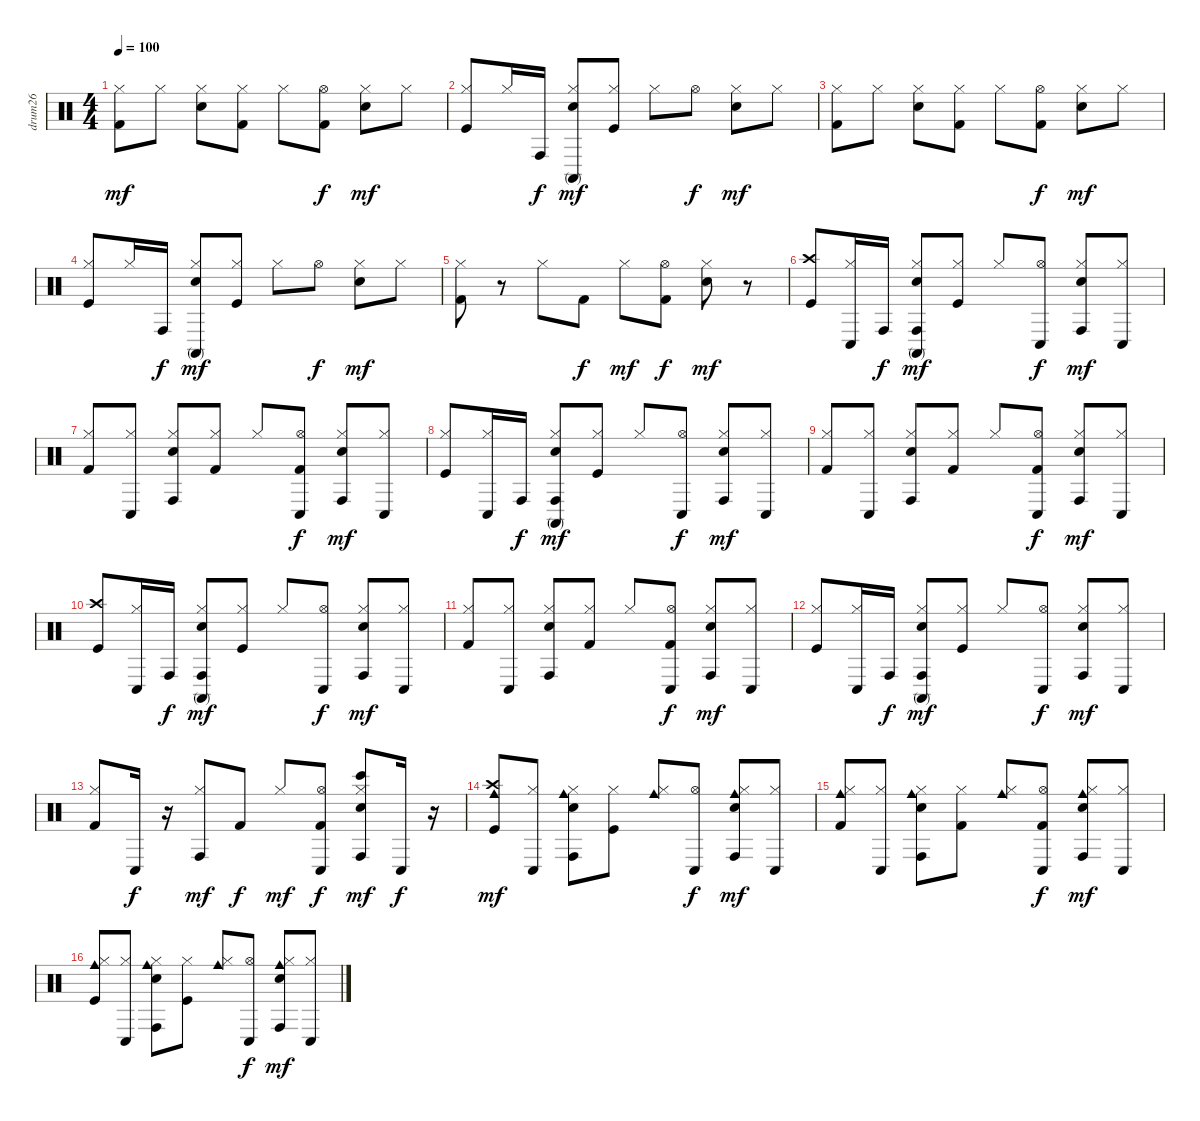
\track ("drum26" "drum26") {instrument percussion}
\staff {score}
\articulation defaults
\ts (4 4)
\tempo 100
\clef neutral
\ks c
("Kick (hit) 2" "Hi-Hat (closed)").8{dy mf} "Hi-Hat (closed)".8 ("Electric Snare (hit)" "Hi-Hat (closed)").8 ("Kick (hit) 2" "Hi-Hat (closed)").8 "Hi-Hat (closed)".8 ("Kick (hit) 2" "Hi-Hat (open)").8{dy f} ("Electric Snare (hit)" "Hi-Hat (closed)").8{dy mf} "Hi-Hat (closed)".8 |
("Kick (hit)" "Hi-Hat (closed)").8 "Hi-Hat (closed)".16 "Conga high (hit)".16{dy f} ("Electric Snare (hit)" "Conga high (mute)" "Hi-Hat (closed)").8{dy mf} ("Kick (hit)" "Hi-Hat (closed)").8 "Hi-Hat (closed)".8 "Hi-Hat (open)".8{dy f} ("Electric Snare (hit)" "Hi-Hat (closed)").8{dy mf} "Hi-Hat (closed)".8 |
("Kick (hit) 2" "Hi-Hat (closed)").8 "Hi-Hat (closed)".8 ("Electric Snare (hit)" "Hi-Hat (closed)").8 ("Hi-Hat (closed)" "Kick (hit) 2").8 "Hi-Hat (closed)".8 ("Kick (hit) 2" "Hi-Hat (open)").8{dy f} ("Hi-Hat (closed)" "Electric Snare (hit)").8{dy mf} "Hi-Hat (closed)".8 |
("Hi-Hat (closed)" "Kick (hit)").8 "Hi-Hat (closed)".16 "Conga high (hit)".16{dy f} ("Electric Snare (hit)" "Hi-Hat (closed)" "Conga high (mute)").8{dy mf} ("Hi-Hat (closed)" "Kick (hit)").8 "Hi-Hat (closed)".8 "Hi-Hat (open)".8{dy f} ("Hi-Hat (closed)" "Electric Snare (hit)").8{dy mf} "Hi-Hat (closed)".8 |
("Kick (hit) 2" "Hi-Hat (closed)").8 r.8 "Hi-Hat (closed)".8 "Kick (hit) 2".8{dy f} "Hi-Hat (closed)".8{dy mf} ("Kick (hit) 2" "Hi-Hat (open)").8{dy f} ("Electric Snare (hit)" "Hi-Hat (closed)").8{dy mf} r.8 |
("Kick (hit)" "Crash high (hit)").8 ("Hi-Hat (closed)" "Conga low (hit)").16 "Conga high (hit)".16{dy f} ("Conga high (hit)" "Conga high (mute)" "Electric Snare (hit)" "Hi-Hat (closed)").8{dy mf} ("Hi-Hat (closed)" "Kick (hit)").8 "Hi-Hat (closed)".8 ("Conga low (hit)" "Hi-Hat (open)").8{dy f} ("Hi-Hat (closed)" "Conga high (hit)" "Electric Snare (hit)").8{dy mf} ("Hi-Hat (closed)" "Conga low (hit)").8 |
("Kick (hit) 2" "Hi-Hat (closed)").8 ("Hi-Hat (closed)" "Conga low (hit)").8 ("Electric Snare (hit)" "Hi-Hat (closed)" "Conga high (hit)").8 ("Kick (hit) 2" "Hi-Hat (closed)").8 "Hi-Hat (closed)".8 ("Kick (hit) 2" "Hi-Hat (open)" "Conga low (hit)").8{dy f} ("Electric Snare (hit)" "Conga high (hit)" "Hi-Hat (closed)").8{dy mf} ("Conga low (hit)" "Hi-Hat (closed)").8 |
("Hi-Hat (closed)" "Kick (hit)").8 ("Hi-Hat (closed)" "Conga low (hit)").16 "Conga high (hit)".16{dy f} ("Conga high (hit)" "Electric Snare (hit)" "Hi-Hat (closed)" "Conga high (mute)").8{dy mf} ("Hi-Hat (closed)" "Kick (hit)").8 "Hi-Hat (closed)".8 ("Hi-Hat (open)" "Conga low (hit)").8{dy f} ("Conga high (hit)" "Electric Snare (hit)" "Hi-Hat (closed)").8{dy mf} ("Hi-Hat (closed)" "Conga low (hit)").8 |
("Hi-Hat (closed)" "Kick (hit) 2").8 ("Hi-Hat (closed)" "Conga low (hit)").8 ("Hi-Hat (closed)" "Conga high (hit)" "Electric Snare (hit)").8 ("Hi-Hat (closed)" "Kick (hit) 2").8 "Hi-Hat (closed)".8 ("Kick (hit) 2" "Hi-Hat (open)" "Conga low (hit)").8{dy f} ("Hi-Hat (closed)" "Electric Snare (hit)" "Conga high (hit)").8{dy mf} ("Conga low (hit)" "Hi-Hat (closed)").8 |
("Kick (hit)" "Crash high (hit)").8 ("Hi-Hat (closed)" "Conga low (hit)").16 "Conga high (hit)".16{dy f} ("Conga high (hit)" "Electric Snare (hit)" "Conga high (mute)" "Hi-Hat (closed)").8{dy mf} ("Kick (hit)" "Hi-Hat (closed)").8 "Hi-Hat (closed)".8 ("Hi-Hat (open)" "Conga low (hit)").8{dy f} ("Electric Snare (hit)" "Hi-Hat (closed)" "Conga high (hit)").8{dy mf} ("Hi-Hat (closed)" "Conga low (hit)").8 |
("Kick (hit) 2" "Hi-Hat (closed)").8 ("Hi-Hat (closed)" "Conga low (hit)").8 ("Electric Snare (hit)" "Hi-Hat (closed)" "Conga high (hit)").8 ("Kick (hit) 2" "Hi-Hat (closed)").8 "Hi-Hat (closed)".8 ("Kick (hit) 2" "Hi-Hat (open)" "Conga low (hit)").8{dy f} ("Hi-Hat (closed)" "Conga high (hit)" "Electric Snare (hit)").8{dy mf} ("Conga low (hit)" "Hi-Hat (closed)").8 |
("Hi-Hat (closed)" "Kick (hit)").8 ("Hi-Hat (closed)" "Conga low (hit)").16 "Conga high (hit)".16{dy f} ("Hi-Hat (closed)" "Electric Snare (hit)" "Conga high (mute)" "Conga high (hit)").8{dy mf} ("Hi-Hat (closed)" "Kick (hit)").8 "Hi-Hat (closed)".8 ("Hi-Hat (open)" "Conga low (hit)").8{dy f} ("Conga high (hit)" "Electric Snare (hit)" "Hi-Hat (closed)").8{dy mf} ("Hi-Hat (closed)" "Conga low (hit)").8 |
("Hi-Hat (closed)" "Kick (hit) 2").8 "Conga low (hit)".16{dy f} r.16 ("Hi-Hat (closed)" "Conga high (hit)").8{dy mf} "Kick (hit) 2".8{dy f} "Hi-Hat (closed)".8{dy mf} ("Kick (hit) 2" "Hi-Hat (open)" "Conga low (hit)").8{dy f} ("Bongo High (hit)" "Conga high (hit)" "Electric Snare (hit)" "Hi-Hat (closed)").8{dy mf} "Conga low (hit)".16{dy f} r.16 |
("Kick (hit)" "Crash high (hit)" "Cowbell medium (hit)").8{dy mf} ("Hi-Hat (closed)" "Conga low (hit)").8 ("Cowbell medium (hit)" "Hi-Hat (closed)" "Electric Snare (hit)" "Conga high (hit)").8 ("Kick (hit)" "Hi-Hat (closed)").8 ("Hi-Hat (closed)" "Cowbell medium (hit)").8 ("Hi-Hat (open)" "Conga low (hit)").8{dy f} ("Hi-Hat (closed)" "Conga high (hit)" "Electric Snare (hit)" "Cowbell medium (hit)").8{dy mf} ("Hi-Hat (closed)" "Conga low (hit)").8 |
("Cowbell medium (hit)" "Kick (hit) 2" "Hi-Hat (closed)").8 ("Conga low (hit)" "Hi-Hat (closed)").8 ("Hi-Hat (closed)" "Electric Snare (hit)" "Cowbell medium (hit)" "Conga high (hit)").8 ("Hi-Hat (closed)" "Kick (hit) 2").8 ("Cowbell medium (hit)" "Hi-Hat (closed)").8 ("Hi-Hat (open)" "Kick (hit) 2" "Conga low (hit)").8{dy f} ("Electric Snare (hit)" "Hi-Hat (closed)" "Cowbell medium (hit)" "Conga high (hit)").8{dy mf} ("Hi-Hat (closed)" "Conga low (hit)").8 |
("Cowbell medium (hit)" "Kick (hit)" "Hi-Hat (closed)").8 ("Hi-Hat (closed)" "Conga low (hit)").8 ("Hi-Hat (closed)" "Conga high (hit)" "Electric Snare (hit)" "Cowbell medium (hit)").8 ("Kick (hit)" "Hi-Hat (closed)").8 ("Hi-Hat (closed)" "Cowbell medium (hit)").8 ("Hi-Hat (open)" "Conga low (hit)").8{dy f} ("Hi-Hat (closed)" "Electric Snare (hit)" "Cowbell medium (hit)" "Conga high (hit)").8{dy mf} ("Conga low (hit)" "Hi-Hat (closed)").8
